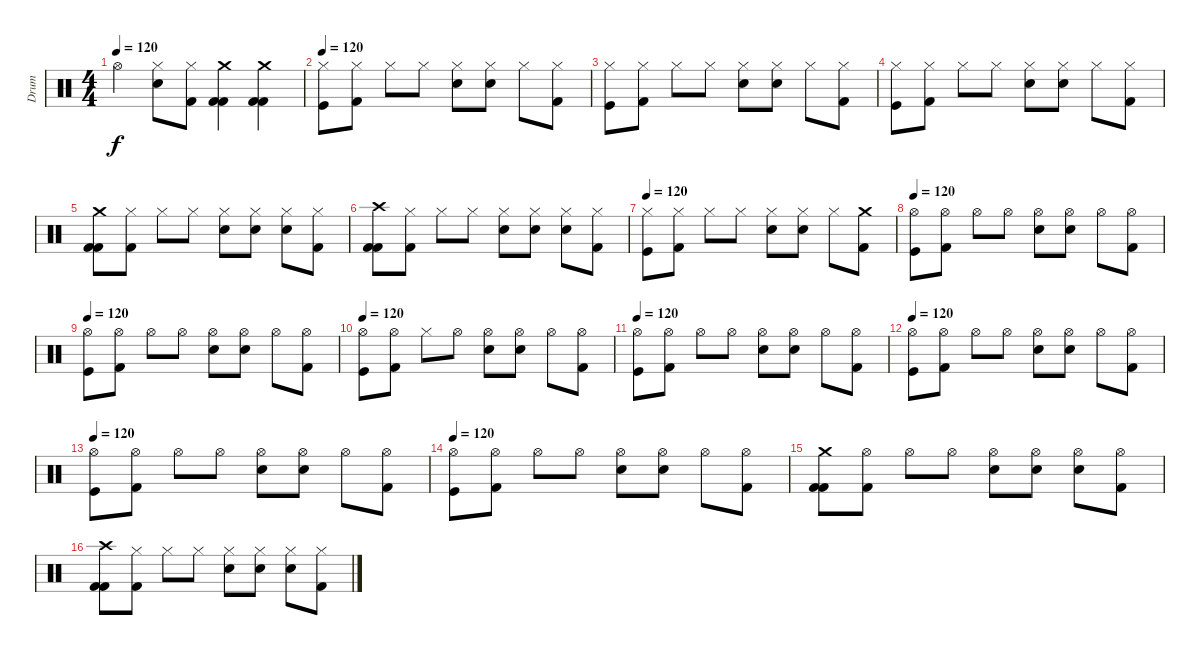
\track ("Drum" "Drum") {instrument percussion}
\staff {score}
\articulation defaults
\ts (4 4)
\tempo 120
\clef neutral
\ks c "Hi-Hat (open)".4{dy f}
("Hi-Hat (closed)" "Snare (hit) 2").8 ("Hi-Hat (closed)" "Kick (hit) 2").8 ("Crash medium (hit)" "Kick (hit) 2" "Kick (hit) 2").4 ("Crash medium (hit)" "Kick (hit) 2" "Kick (hit) 2").4 |
\tempo 120
("Hi-Hat (closed)" "Kick (hit)").8 ("Hi-Hat (closed)" "Kick (hit) 2").8 "Hi-Hat (closed)".8 "Hi-Hat (closed)".8 ("Hi-Hat (closed)" "Snare (hit) 2").8 ("Hi-Hat (closed)" "Snare (hit) 2").8 "Hi-Hat (closed)".8 ("Hi-Hat (closed)" "Kick (hit) 2").8 |
("Hi-Hat (closed)" "Kick (hit)").8 ("Hi-Hat (closed)" "Kick (hit) 2").8 "Hi-Hat (closed)".8 "Hi-Hat (closed)".8 ("Hi-Hat (closed)" "Snare (hit) 2").8 ("Hi-Hat (closed)" "Snare (hit) 2").8 "Hi-Hat (closed)".8 ("Hi-Hat (closed)" "Kick (hit) 2").8 |
("Hi-Hat (closed)" "Kick (hit)").8 ("Hi-Hat (closed)" "Kick (hit) 2").8 "Hi-Hat (closed)".8 "Hi-Hat (closed)".8 ("Hi-Hat (closed)" "Snare (hit) 2").8 ("Hi-Hat (closed)" "Snare (hit) 2").8 "Hi-Hat (closed)".8 ("Hi-Hat (closed)" "Kick (hit) 2").8 |
("Crash medium (hit)" "Kick (hit) 2" "Kick (hit) 2").8 ("Hi-Hat (closed)" "Kick (hit) 2").8 "Hi-Hat (closed)".8 "Hi-Hat (closed)".8 ("Hi-Hat (closed)" "Snare (hit) 2").8 ("Hi-Hat (closed)" "Snare (hit) 2").8 ("Hi-Hat (closed)" "Snare (hit) 2").8 ("Hi-Hat (closed)" "Kick (hit) 2").8 |
("Crash high (hit)" "Kick (hit) 2" "Kick (hit) 2").8 ("Hi-Hat (closed)" "Kick (hit) 2").8 "Hi-Hat (closed)".8 "Hi-Hat (closed)".8 ("Hi-Hat (closed)" "Snare (hit) 2").8 ("Hi-Hat (closed)" "Snare (hit) 2").8 ("Hi-Hat (closed)" "Snare (hit) 2").8 ("Hi-Hat (closed)" "Kick (hit) 2").8 |
\tempo 120
("Hi-Hat (closed)" "Kick (hit)").8 ("Hi-Hat (closed)" "Kick (hit) 2").8 "Hi-Hat (closed)".8 "Hi-Hat (closed)".8 ("Hi-Hat (closed)" "Snare (hit) 2").8 ("Hi-Hat (closed)" "Snare (hit) 2").8 "Hi-Hat (closed)".8 ("Crash medium (hit)" "Kick (hit) 2").8 |
\tempo 120
("Hi-Hat (open)" "Kick (hit)").8 ("Hi-Hat (open)" "Kick (hit) 2").8 "Hi-Hat (open)".8 "Hi-Hat (open)".8 ("Hi-Hat (open)" "Snare (hit) 2").8 ("Hi-Hat (open)" "Snare (hit) 2").8 "Hi-Hat (open)".8 ("Hi-Hat (open)" "Kick (hit) 2").8 |
\tempo 120
("Hi-Hat (open)" "Kick (hit)").8 ("Hi-Hat (open)" "Kick (hit) 2").8 "Hi-Hat (open)".8 "Hi-Hat (open)".8 ("Hi-Hat (open)" "Snare (hit) 2").8 ("Hi-Hat (open)" "Snare (hit) 2").8 "Hi-Hat (open)".8 ("Hi-Hat (open)" "Kick (hit) 2").8 |
\tempo 120
("Hi-Hat (open)" "Kick (hit)").8 ("Hi-Hat (open)" "Kick (hit) 2").8 "Hi-Hat (closed)".8 "Hi-Hat (open)".8 ("Hi-Hat (open)" "Snare (hit) 2").8 ("Hi-Hat (open)" "Snare (hit) 2").8 "Hi-Hat (open)".8 ("Hi-Hat (open)" "Kick (hit) 2").8 |
\tempo 120
("Hi-Hat (open)" "Kick (hit)").8 ("Hi-Hat (open)" "Kick (hit) 2").8 "Hi-Hat (open)".8 "Hi-Hat (open)".8 ("Hi-Hat (open)" "Snare (hit) 2").8 ("Hi-Hat (open)" "Snare (hit) 2").8 "Hi-Hat (open)".8 ("Hi-Hat (open)" "Kick (hit) 2").8 |
\tempo 120
("Hi-Hat (open)" "Kick (hit)").8 ("Hi-Hat (open)" "Kick (hit) 2").8 "Hi-Hat (open)".8 "Hi-Hat (open)".8 ("Hi-Hat (open)" "Snare (hit) 2").8 ("Hi-Hat (open)" "Snare (hit) 2").8 "Hi-Hat (open)".8 ("Hi-Hat (open)" "Kick (hit) 2").8 |
\tempo 120
("Hi-Hat (open)" "Kick (hit)").8 ("Hi-Hat (open)" "Kick (hit) 2").8 "Hi-Hat (open)".8 "Hi-Hat (open)".8 ("Hi-Hat (open)" "Snare (hit) 2").8 ("Hi-Hat (open)" "Snare (hit) 2").8 "Hi-Hat (open)".8 ("Hi-Hat (open)" "Kick (hit) 2").8 |
\tempo 120
("Hi-Hat (open)" "Kick (hit)").8 ("Hi-Hat (open)" "Kick (hit) 2").8 "Hi-Hat (open)".8 "Hi-Hat (open)".8 ("Hi-Hat (open)" "Snare (hit) 2").8 ("Hi-Hat (open)" "Snare (hit) 2").8 "Hi-Hat (open)".8 ("Hi-Hat (open)" "Kick (hit) 2").8 |
("Crash medium (hit)" "Kick (hit) 2" "Kick (hit) 2").8 ("Hi-Hat (open)" "Kick (hit) 2").8 "Hi-Hat (open)".8 "Hi-Hat (open)".8 ("Hi-Hat (open)" "Snare (hit) 2").8 ("Hi-Hat (open)" "Snare (hit) 2").8 ("Hi-Hat (open)" "Snare (hit) 2").8 ("Hi-Hat (open)" "Kick (hit) 2").8 |
("Crash high (hit)" "Kick (hit) 2" "Kick (hit) 2").8 ("Hi-Hat (closed)" "Kick (hit) 2").8 "Hi-Hat (closed)".8 "Hi-Hat (closed)".8 ("Hi-Hat (closed)" "Snare (hit) 2").8 ("Hi-Hat (closed)" "Snare (hit) 2").8 ("Hi-Hat (closed)" "Snare (hit) 2").8 ("Hi-Hat (closed)" "Kick (hit) 2").8
